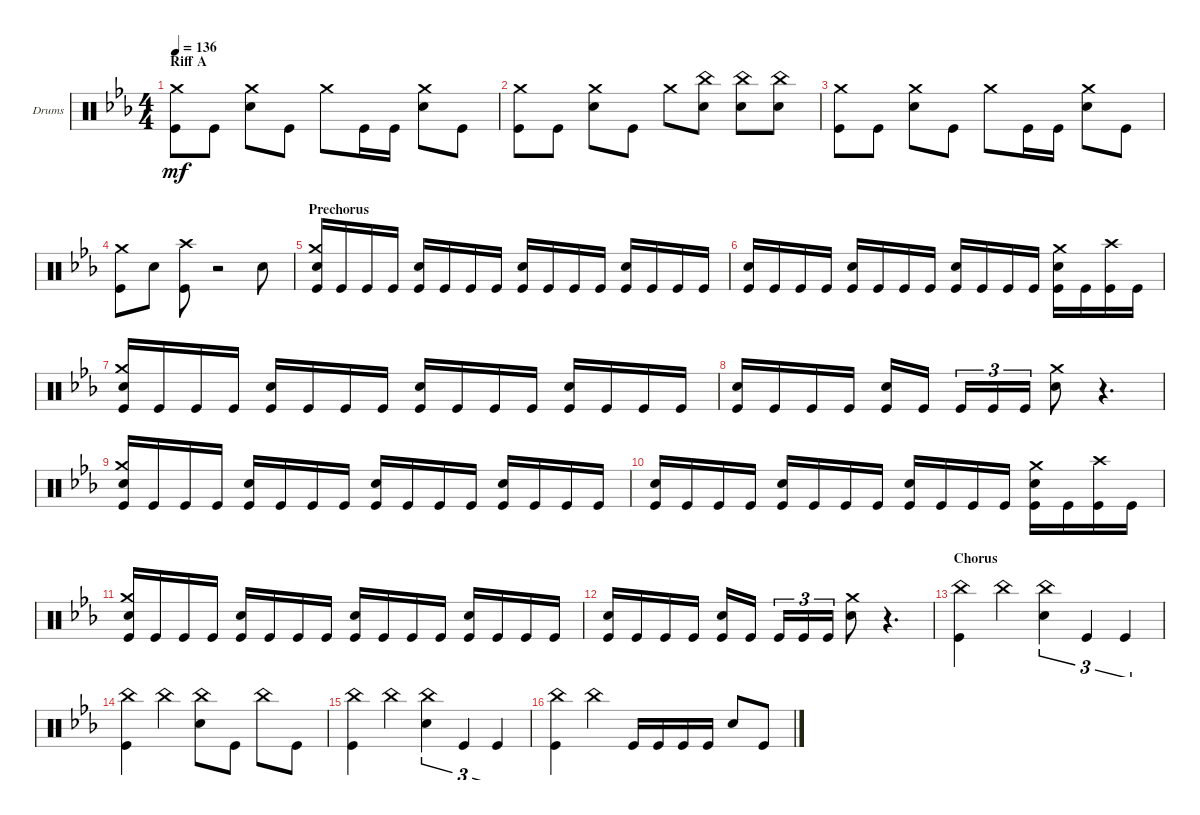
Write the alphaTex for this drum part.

\defaultSystemsLayout 4
\bracketExtendMode groupsimilarinstruments
\firstSystemTrackNameOrientation horizontal
\otherSystemsTrackNameOrientation horizontal
\track ("Drumkit" "Drums") {instrument percussion}
\staff {score}
\articulation defaults
\ts (4 4)
\section ("" "Riff A")
\tempo 136
\clef neutral
\scale
0.333333
\ks cminor
("Kick (hit)" "Crash medium (hit)").8{dy mf} "Kick (hit)".8 ("Snare (hit) 2" "Crash medium (hit)").8 "Kick (hit)".8 "Crash medium (hit)".8 "Kick (hit)".16 "Kick (hit)".16 ("Snare (hit) 2" "Crash medium (hit)").8 "Kick (hit)".8 |
\scale
0.333333 ("Kick (hit)" "Crash medium (hit)").8 "Kick (hit)".8 ("Snare (hit) 2" "Crash medium (hit)").8 "Kick (hit)".8 "Crash medium (hit)".8 ("Snare (hit) 2" "China (hit)").8 ("Snare (hit) 2" "China (hit)").8 ("Snare (hit) 2" "China (hit)").8 |
\scale
0.333333 ("Kick (hit)" "Crash medium (hit)").8 "Kick (hit)".8 ("Snare (hit) 2" "Crash medium (hit)").8 "Kick (hit)".8 "Crash medium (hit)".8 "Kick (hit)".16 "Kick (hit)".16 ("Snare (hit) 2" "Crash medium (hit)").8 "Kick (hit)".8 |
\scale
0.333333 ("Kick (hit)" "Crash medium (hit)").8 "Snare (hit) 2".8 ("Kick (hit)" "Crash high (hit)").8 r.2 "Snare (hit) 2".8 |
\section ("" "Prechorus")
\scale
0.333333 ("Kick (hit)" "Snare (hit) 2" "Crash medium (hit)").16 "Kick (hit)".16 "Kick (hit)".16 "Kick (hit)".16 ("Kick (hit)" "Snare (hit) 2").16 "Kick (hit)".16 "Kick (hit)".16 "Kick (hit)".16 ("Kick (hit)" "Snare (hit) 2").16 "Kick (hit)".16 "Kick (hit)".16 "Kick (hit)".16 ("Kick (hit)" "Snare (hit) 2").16 "Kick (hit)".16 "Kick (hit)".16 "Kick (hit)".16 |
\scale
0.333333 ("Kick (hit)" "Snare (hit) 2").16 "Kick (hit)".16 "Kick (hit)".16 "Kick (hit)".16 ("Kick (hit)" "Snare (hit) 2").16 "Kick (hit)".16 "Kick (hit)".16 "Kick (hit)".16 ("Kick (hit)" "Snare (hit) 2").16 "Kick (hit)".16 "Kick (hit)".16 "Kick (hit)".16 ("Kick (hit)" "Snare (hit) 2" "Crash medium (hit)").16 "Kick (hit)".16 ("Kick (hit)" "Crash high (hit)").16 "Kick (hit)".16 |
\scale
0.333333 ("Kick (hit)" "Snare (hit) 2" "Crash medium (hit)").16 "Kick (hit)".16 "Kick (hit)".16 "Kick (hit)".16 ("Kick (hit)" "Snare (hit) 2").16 "Kick (hit)".16 "Kick (hit)".16 "Kick (hit)".16 ("Kick (hit)" "Snare (hit) 2").16 "Kick (hit)".16 "Kick (hit)".16 "Kick (hit)".16 ("Kick (hit)" "Snare (hit) 2").16 "Kick (hit)".16 "Kick (hit)".16 "Kick (hit)".16 |
\scale
0.333333 ("Kick (hit)" "Snare (hit) 2").16 "Kick (hit)".16 "Kick (hit)".16 "Kick (hit)".16 ("Kick (hit)" "Snare (hit) 2").16 "Kick (hit)".16 "Kick (hit)".16{tu (3 2)} "Kick (hit)".16{tu (3 2)} "Kick (hit)".16{tu (3 2)} ("Snare (hit) 2" "Crash medium (hit)").8 r.4{d} |
\scale
0.333333 ("Kick (hit)" "Snare (hit) 2" "Crash medium (hit)").16 "Kick (hit)".16 "Kick (hit)".16 "Kick (hit)".16 ("Kick (hit)" "Snare (hit) 2").16 "Kick (hit)".16 "Kick (hit)".16 "Kick (hit)".16 ("Kick (hit)" "Snare (hit) 2").16 "Kick (hit)".16 "Kick (hit)".16 "Kick (hit)".16 ("Kick (hit)" "Snare (hit) 2").16 "Kick (hit)".16 "Kick (hit)".16 "Kick (hit)".16 |
\scale
0.333333 ("Kick (hit)" "Snare (hit) 2").16 "Kick (hit)".16 "Kick (hit)".16 "Kick (hit)".16 ("Kick (hit)" "Snare (hit) 2").16 "Kick (hit)".16 "Kick (hit)".16 "Kick (hit)".16 ("Kick (hit)" "Snare (hit) 2").16 "Kick (hit)".16 "Kick (hit)".16 "Kick (hit)".16 ("Kick (hit)" "Snare (hit) 2" "Crash medium (hit)").16 "Kick (hit)".16 ("Kick (hit)" "Crash high (hit)").16 "Kick (hit)".16 |
\scale
0.333333 ("Kick (hit)" "Snare (hit) 2" "Crash medium (hit)").16 "Kick (hit)".16 "Kick (hit)".16 "Kick (hit)".16 ("Kick (hit)" "Snare (hit) 2").16 "Kick (hit)".16 "Kick (hit)".16 "Kick (hit)".16 ("Kick (hit)" "Snare (hit) 2").16 "Kick (hit)".16 "Kick (hit)".16 "Kick (hit)".16 ("Kick (hit)" "Snare (hit) 2").16 "Kick (hit)".16 "Kick (hit)".16 "Kick (hit)".16 |
\scale
0.333333 ("Kick (hit)" "Snare (hit) 2").16 "Kick (hit)".16 "Kick (hit)".16 "Kick (hit)".16 ("Kick (hit)" "Snare (hit) 2").16 "Kick (hit)".16 "Kick (hit)".16{tu (3 2)} "Kick (hit)".16{tu (3 2)} "Kick (hit)".16{tu (3 2)} ("Snare (hit) 2" "Crash medium (hit)").8 r.4{d} |
\section ("" "Chorus")
\scale
0.333333 ("Kick (hit)" "China (hit)").4 "China (hit)".4 ("Snare (hit) 2" "China (hit)").4{tu (3 2)} "Kick (hit)".4{tu (3 2)} "Kick (hit)".4{tu (3 2)} |
\scale
0.333333 ("Kick (hit)" "China (hit)").4 "China (hit)".4 ("Snare (hit) 2" "China (hit)").8 "Kick (hit)".8 "China (hit)".8 "Kick (hit)".8 |
\scale
0.333333 ("Kick (hit)" "China (hit)").4 "China (hit)".4 ("Snare (hit) 2" "China (hit)").4{tu (3 2)} "Kick (hit)".4{tu (3 2)} "Kick (hit)".4{tu (3 2)} |
\scale
0.333333 ("Kick (hit)" "China (hit)").4 "China (hit)".4 "Kick (hit)".16 "Kick (hit)".16 "Kick (hit)".16 "Kick (hit)".16 "Snare (hit) 2".8 "Kick (hit)".8
